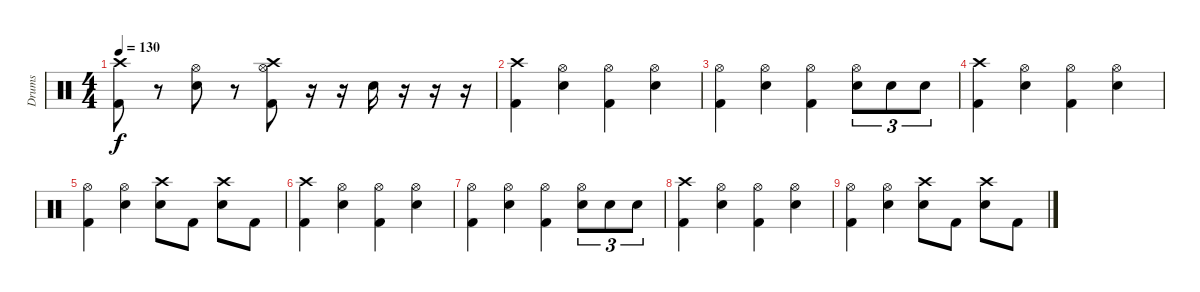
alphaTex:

\track ("Drums" "Drums") {instrument percussion}
\staff {score}
\articulation defaults
\ts (4 4)
\tempo 130
\clef neutral
\ks c
("Crash high (hit)" "Kick (hit) 2").8{dy f} r.8 ("Hi-Hat (open)" "Snare (hit) 2").8 r.8 ("Crash high (hit)" "Hi-Hat (open)" "Kick (hit) 2").8 r.16 r.16 "Snare (hit) 2".16 r.16 r.16 r.16 |
("Crash high (hit)" "Kick (hit) 2").4 ("Hi-Hat (open)" "Snare (hit) 2").4 ("Hi-Hat (open)" "Kick (hit) 2").4 ("Hi-Hat (open)" "Snare (hit) 2").4 |
("Hi-Hat (open)" "Kick (hit) 2").4 ("Hi-Hat (open)" "Snare (hit) 2").4 ("Hi-Hat (open)" "Kick (hit) 2").4 ("Hi-Hat (open)" "Snare (hit) 2").8{tu (3 2)} "Snare (hit) 2".8{tu (3 2)} "Snare (hit) 2".8{tu (3 2)} |
("Crash high (hit)" "Kick (hit) 2").4 ("Hi-Hat (open)" "Snare (hit) 2").4 ("Hi-Hat (open)" "Kick (hit) 2").4 ("Hi-Hat (open)" "Snare (hit) 2").4 |
("Hi-Hat (open)" "Kick (hit) 2").4 ("Hi-Hat (open)" "Snare (hit) 2").4 ("Crash high (hit)" "Snare (hit) 2").8 "Kick (hit) 2".8 ("Crash high (hit)" "Snare (hit) 2").8 "Kick (hit) 2".8 |
("Crash high (hit)" "Kick (hit) 2").4 ("Hi-Hat (open)" "Snare (hit) 2").4 ("Hi-Hat (open)" "Kick (hit) 2").4 ("Hi-Hat (open)" "Snare (hit) 2").4 |
("Hi-Hat (open)" "Kick (hit) 2").4 ("Hi-Hat (open)" "Snare (hit) 2").4 ("Hi-Hat (open)" "Kick (hit) 2").4 ("Hi-Hat (open)" "Snare (hit) 2").8{tu (3 2)} "Snare (hit) 2".8{tu (3 2)} "Snare (hit) 2".8{tu (3 2)} |
("Crash high (hit)" "Kick (hit) 2").4 ("Hi-Hat (open)" "Snare (hit) 2").4 ("Hi-Hat (open)" "Kick (hit) 2").4 ("Hi-Hat (open)" "Snare (hit) 2").4 |
("Hi-Hat (open)" "Kick (hit) 2").4 ("Hi-Hat (open)" "Snare (hit) 2").4 ("Crash high (hit)" "Snare (hit) 2").8 "Kick (hit) 2".8 ("Crash high (hit)" "Snare (hit) 2").8 "Kick (hit) 2".8
